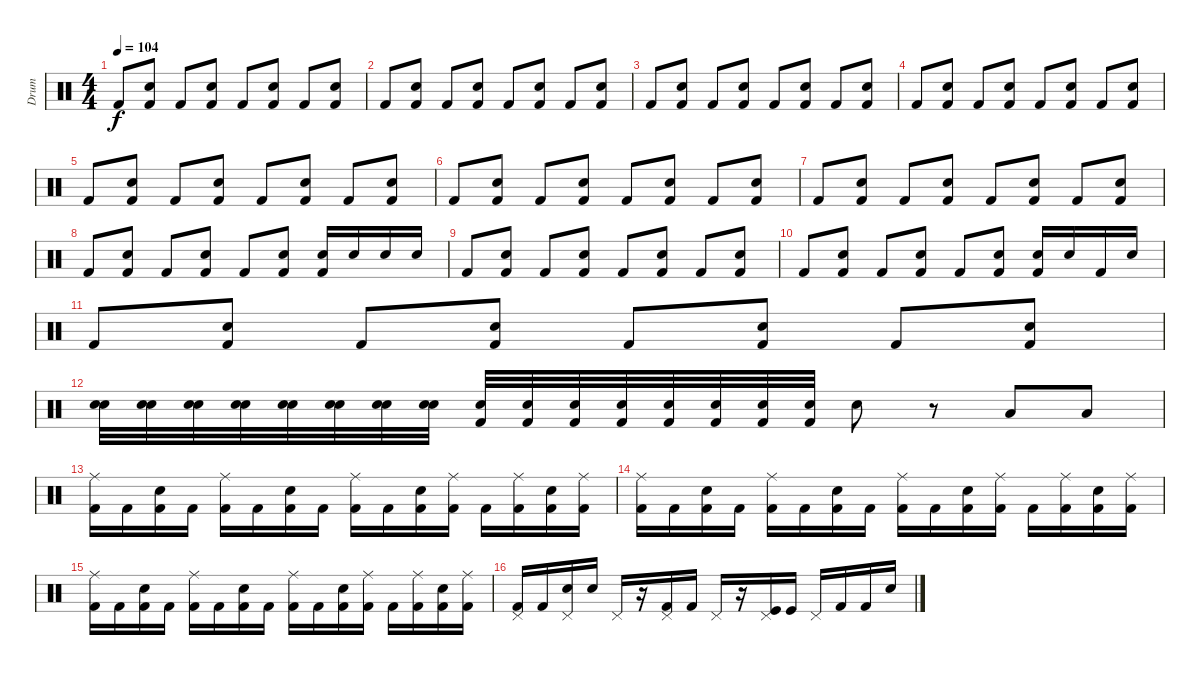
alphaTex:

\track ("Drum" "Drum") {instrument percussion}
\staff {score}
\articulation defaults
\ts (4 4)
\tempo 104
\clef neutral
\ks c "Kick (hit) 2".8{dy f}
("Snare (hit) 2" "Kick (hit) 2").8 "Kick (hit) 2".8 ("Snare (hit) 2" "Kick (hit) 2").8 "Kick (hit) 2".8 ("Snare (hit) 2" "Kick (hit) 2").8 "Kick (hit) 2".8 ("Snare (hit) 2" "Kick (hit) 2").8 |
"Kick (hit) 2".8 ("Snare (hit) 2" "Kick (hit) 2").8 "Kick (hit) 2".8 ("Snare (hit) 2" "Kick (hit) 2").8 "Kick (hit) 2".8 ("Snare (hit) 2" "Kick (hit) 2").8 "Kick (hit) 2".8 ("Snare (hit) 2" "Kick (hit) 2").8 |
"Kick (hit) 2".8 ("Snare (hit) 2" "Kick (hit) 2").8 "Kick (hit) 2".8 ("Snare (hit) 2" "Kick (hit) 2").8 "Kick (hit) 2".8 ("Snare (hit) 2" "Kick (hit) 2").8 "Kick (hit) 2".8 ("Snare (hit) 2" "Kick (hit) 2").8 |
"Kick (hit) 2".8 ("Snare (hit) 2" "Kick (hit) 2").8 "Kick (hit) 2".8 ("Snare (hit) 2" "Kick (hit) 2").8 "Kick (hit) 2".8 ("Snare (hit) 2" "Kick (hit) 2").8 "Kick (hit) 2".8 ("Snare (hit) 2" "Kick (hit) 2").8 |
"Kick (hit) 2".8 ("Snare (hit) 2" "Kick (hit) 2").8 "Kick (hit) 2".8 ("Snare (hit) 2" "Kick (hit) 2").8 "Kick (hit) 2".8 ("Snare (hit) 2" "Kick (hit) 2").8 "Kick (hit) 2".8 ("Snare (hit) 2" "Kick (hit) 2").8 |
"Kick (hit) 2".8 ("Snare (hit) 2" "Kick (hit) 2").8 "Kick (hit) 2".8 ("Snare (hit) 2" "Kick (hit) 2").8 "Kick (hit) 2".8 ("Snare (hit) 2" "Kick (hit) 2").8 "Kick (hit) 2".8 ("Snare (hit) 2" "Kick (hit) 2").8 |
"Kick (hit) 2".8 ("Snare (hit) 2" "Kick (hit) 2").8 "Kick (hit) 2".8 ("Snare (hit) 2" "Kick (hit) 2").8 "Kick (hit) 2".8 ("Snare (hit) 2" "Kick (hit) 2").8 "Kick (hit) 2".8 ("Snare (hit) 2" "Kick (hit) 2").8 |
"Kick (hit) 2".8 ("Snare (hit) 2" "Kick (hit) 2").8 "Kick (hit) 2".8 ("Snare (hit) 2" "Kick (hit) 2").8 "Kick (hit) 2".8 ("Snare (hit) 2" "Kick (hit) 2").8 ("Snare (hit) 2" "Kick (hit) 2").16 "Snare (hit) 2".16 "Snare (hit) 2".16 "Snare (hit) 2".16 |
"Kick (hit) 2".8 ("Snare (hit) 2" "Kick (hit) 2").8 "Kick (hit) 2".8 ("Snare (hit) 2" "Kick (hit) 2").8 "Kick (hit) 2".8 ("Snare (hit) 2" "Kick (hit) 2").8 "Kick (hit) 2".8 ("Snare (hit) 2" "Kick (hit) 2").8 |
"Kick (hit) 2".8 ("Snare (hit) 2" "Kick (hit) 2").8 "Kick (hit) 2".8 ("Snare (hit) 2" "Kick (hit) 2").8 "Kick (hit) 2".8 ("Snare (hit) 2" "Kick (hit) 2").8 ("Snare (hit) 2" "Kick (hit) 2").16 "Snare (hit) 2".16 "Kick (hit) 2".16 "Snare (hit) 2".16 |
"Kick (hit) 2".8 ("Snare (hit) 2" "Kick (hit) 2").8 "Kick (hit) 2".8 ("Snare (hit) 2" "Kick (hit) 2").8 "Kick (hit) 2".8 ("Snare (hit) 2" "Kick (hit) 2").8 "Kick (hit) 2".8 ("Snare (hit) 2" "Kick (hit) 2").8 |
("Snare (hit) 2" "Electric Snare (hit)").32 ("Snare (hit) 2" "Electric Snare (hit)").32 ("Snare (hit) 2" "Electric Snare (hit)").32 ("Snare (hit) 2" "Electric Snare (hit)").32 ("Snare (hit) 2" "Electric Snare (hit)").32 ("Snare (hit) 2" "Electric Snare (hit)").32 ("Snare (hit) 2" "Electric Snare (hit)").32 ("Snare (hit) 2" "Electric Snare (hit)").32 ("Kick (hit) 2" "Snare (hit) 2").32 ("Kick (hit) 2" "Snare (hit) 2").32 ("Kick (hit) 2" "Snare (hit) 2").32 ("Kick (hit) 2" "Snare (hit) 2").32 ("Kick (hit) 2" "Snare (hit) 2").32 ("Kick (hit) 2" "Snare (hit) 2").32 ("Kick (hit) 2" "Snare (hit) 2").32 ("Kick (hit) 2" "Snare (hit) 2").32 "Snare (hit) 2".8 r.8 "Low Tom (hit)".8 "Low Floor Tom (hit)".8 |
("Kick (hit) 2" "Ride (middle)").16 "Kick (hit) 2".16 ("Snare (hit) 2" "Kick (hit) 2").16 "Kick (hit) 2".16 ("Kick (hit) 2" "Ride (middle)").16 "Kick (hit) 2".16 ("Snare (hit) 2" "Kick (hit) 2").16 "Kick (hit) 2".16 ("Kick (hit) 2" "Ride (middle)").16 "Kick (hit) 2".16 ("Snare (hit) 2" "Kick (hit) 2").16 ("Kick (hit) 2" "Ride (middle)").16 "Kick (hit) 2".16 ("Kick (hit) 2" "Ride (middle)").16 ("Snare (hit) 2" "Kick (hit) 2").16 ("Kick (hit) 2" "Ride (middle)").16 |
("Kick (hit) 2" "Ride (middle)").16 "Kick (hit) 2".16 ("Snare (hit) 2" "Kick (hit) 2").16 "Kick (hit) 2".16 ("Kick (hit) 2" "Ride (middle)").16 "Kick (hit) 2".16 ("Snare (hit) 2" "Kick (hit) 2").16 "Kick (hit) 2".16 ("Kick (hit) 2" "Ride (middle)").16 "Kick (hit) 2".16 ("Snare (hit) 2" "Kick (hit) 2").16 ("Kick (hit) 2" "Ride (middle)").16 "Kick (hit) 2".16 ("Kick (hit) 2" "Ride (middle)").16 ("Snare (hit) 2" "Kick (hit) 2").16 ("Kick (hit) 2" "Ride (middle)").16 |
("Kick (hit) 2" "Ride (middle)").16 "Kick (hit) 2".16 ("Snare (hit) 2" "Kick (hit) 2").16 "Kick (hit) 2".16 ("Kick (hit) 2" "Ride (middle)").16 "Kick (hit) 2".16 ("Snare (hit) 2" "Kick (hit) 2").16 "Kick (hit) 2".16 ("Kick (hit) 2" "Ride (middle)").16 "Kick (hit) 2".16 ("Snare (hit) 2" "Kick (hit) 2").16 ("Kick (hit) 2" "Ride (middle)").16 "Kick (hit) 2".16 ("Kick (hit) 2" "Ride (middle)").16 ("Snare (hit) 2" "Kick (hit) 2").16 ("Kick (hit) 2" "Ride (middle)").16 |
("Kick (hit) 2" "Pedal Hi-Hat (hit)").16 "Kick (hit) 2".16 ("Snare (hit) 2" "Pedal Hi-Hat (hit)").16 "Snare (hit) 2".16 "Pedal Hi-Hat (hit)".16 r.16 ("Kick (hit) 2" "Pedal Hi-Hat (hit)").16 "Kick (hit) 2".16 "Pedal Hi-Hat (hit)".16 r.16 ("Kick (hit)" "Pedal Hi-Hat (hit)").16 "Kick (hit)".16 "Pedal Hi-Hat (hit)".16 "Kick (hit) 2".16 "Kick (hit) 2".16 "Snare (hit) 2".16
